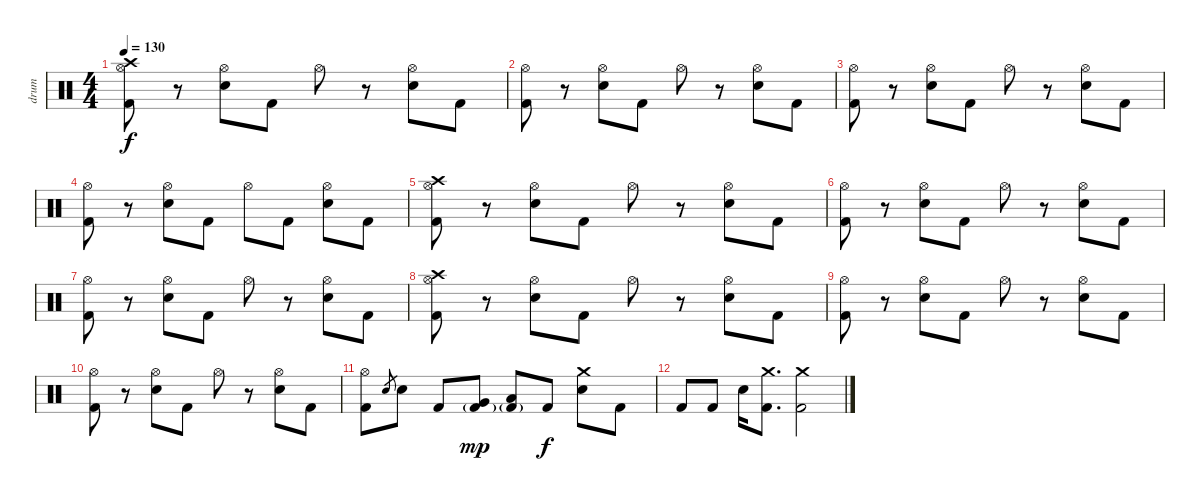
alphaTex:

\track ("drum" "drum") {instrument percussion}
\staff {score}
\articulation defaults
\ts (4 4)
\tempo 130
\clef neutral
\ks c
("Crash high (hit)" "Hi-Hat (open)" "Kick (hit) 2").8{dy f} r.8 ("Hi-Hat (open)" "Electric Snare (hit)").8 "Kick (hit) 2".8 "Hi-Hat (open)".8 r.8 ("Hi-Hat (open)" "Electric Snare (hit)").8 "Kick (hit) 2".8 |
("Hi-Hat (open)" "Kick (hit) 2").8 r.8 ("Hi-Hat (open)" "Electric Snare (hit)").8 "Kick (hit) 2".8 "Hi-Hat (open)".8 r.8 ("Hi-Hat (open)" "Electric Snare (hit)").8 "Kick (hit) 2".8 |
("Hi-Hat (open)" "Kick (hit) 2").8 r.8 ("Hi-Hat (open)" "Electric Snare (hit)").8 "Kick (hit) 2".8 "Hi-Hat (open)".8 r.8 ("Hi-Hat (open)" "Electric Snare (hit)").8 "Kick (hit) 2".8 |
("Hi-Hat (open)" "Kick (hit) 2").8 r.8 ("Hi-Hat (open)" "Electric Snare (hit)").8 "Kick (hit) 2".8 "Hi-Hat (open)".8 "Kick (hit) 2".8 ("Hi-Hat (open)" "Electric Snare (hit)").8 "Kick (hit) 2".8 |
("Crash high (hit)" "Hi-Hat (open)" "Kick (hit) 2").8 r.8 ("Hi-Hat (open)" "Electric Snare (hit)").8 "Kick (hit) 2".8 "Hi-Hat (open)".8 r.8 ("Hi-Hat (open)" "Electric Snare (hit)").8 "Kick (hit) 2".8 |
("Hi-Hat (open)" "Kick (hit) 2").8 r.8 ("Hi-Hat (open)" "Electric Snare (hit)").8 "Kick (hit) 2".8 "Hi-Hat (open)".8 r.8 ("Hi-Hat (open)" "Electric Snare (hit)").8 "Kick (hit) 2".8 |
("Hi-Hat (open)" "Kick (hit) 2").8 r.8 ("Hi-Hat (open)" "Electric Snare (hit)").8 "Kick (hit) 2".8 "Hi-Hat (open)".8 r.8 ("Hi-Hat (open)" "Electric Snare (hit)").8 "Kick (hit) 2".8 |
("Crash high (hit)" "Hi-Hat (open)" "Kick (hit) 2").8 r.8 ("Hi-Hat (open)" "Electric Snare (hit)").8 "Kick (hit) 2".8 "Hi-Hat (open)".8 r.8 ("Hi-Hat (open)" "Electric Snare (hit)").8 "Kick (hit) 2".8 |
("Hi-Hat (open)" "Kick (hit) 2").8 r.8 ("Hi-Hat (open)" "Electric Snare (hit)").8 "Kick (hit) 2".8 "Hi-Hat (open)".8 r.8 ("Hi-Hat (open)" "Electric Snare (hit)").8 "Kick (hit) 2".8 |
("Hi-Hat (open)" "Kick (hit) 2").8 r.8 ("Hi-Hat (open)" "Electric Snare (hit)").8 "Kick (hit) 2".8 "Hi-Hat (open)".8 r.8 ("Hi-Hat (open)" "Electric Snare (hit)").8 "Kick (hit) 2".8 |
("Hi-Hat (open)" "Kick (hit) 2").8 "Electric Snare (hit)".8{gr} "Electric Snare (hit)".8 "Kick (hit) 2".8 ("Very Low Tom (hit)" "Kick (hit) 2"{g}).8{dy mp} ("Low Floor Tom (hit)" "Kick (hit) 2"{g}).8 "Kick (hit) 2".8{dy f} ("Crash medium (hit)" "Electric Snare (hit)").8 "Kick (hit) 2".8 |
"Kick (hit) 2".8 "Kick (hit) 2".8 "Electric Snare (hit)".16 ("Crash medium (hit)" "Kick (hit) 2").8{d} ("Crash medium (hit)" "Kick (hit) 2").2
